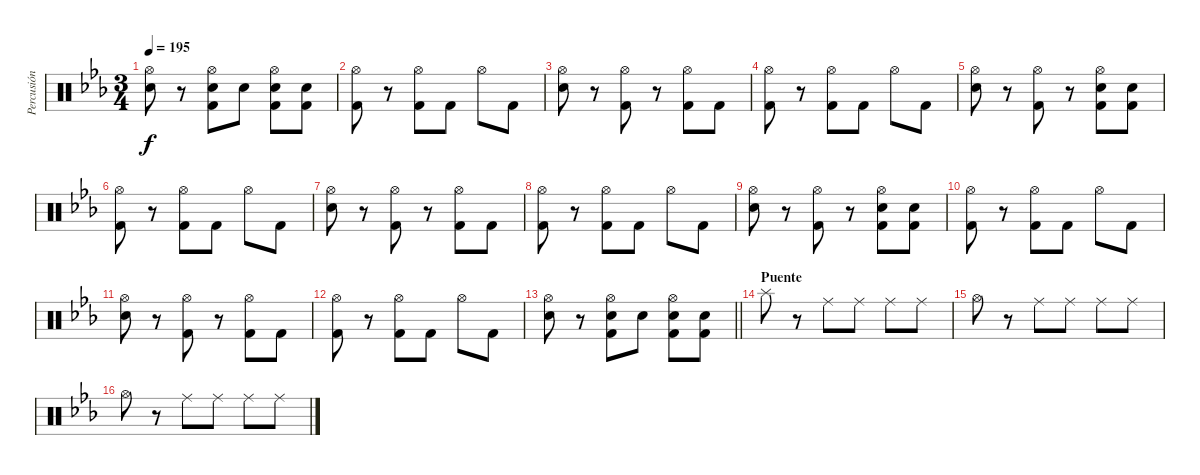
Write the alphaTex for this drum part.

\track ("Percusión" "Percusión") {instrument percussion}
\staff {score}
\articulation defaults
\ts (3 4)
\tempo 195
\clef neutral
\ks eb
("Hi-Hat (open)" "Snare (hit) 2").8{dy f} r.8 ("Hi-Hat (open)" "Snare (hit) 2" "Kick (hit) 2").8 "Snare (hit) 2".8 ("Hi-Hat (open)" "Snare (hit) 2" "Kick (hit) 2").8 ("Snare (hit) 2" "Kick (hit) 2").8 |
("Hi-Hat (open)" "Kick (hit) 2").8 r.8 ("Hi-Hat (open)" "Kick (hit) 2").8 "Kick (hit) 2".8 "Hi-Hat (open)".8 "Kick (hit) 2".8 |
("Hi-Hat (open)" "Snare (hit) 2").8 r.8 ("Hi-Hat (open)" "Kick (hit) 2").8 r.8 ("Hi-Hat (open)" "Kick (hit) 2").8 "Kick (hit) 2".8 |
("Hi-Hat (open)" "Kick (hit) 2").8 r.8 ("Hi-Hat (open)" "Kick (hit) 2").8 "Kick (hit) 2".8 "Hi-Hat (open)".8 "Kick (hit) 2".8 |
("Hi-Hat (open)" "Snare (hit) 2").8 r.8 ("Hi-Hat (open)" "Kick (hit) 2").8 r.8 ("Hi-Hat (open)" "Snare (hit) 2" "Kick (hit) 2").8 ("Snare (hit) 2" "Kick (hit) 2").8 |
("Hi-Hat (open)" "Kick (hit) 2").8 r.8 ("Hi-Hat (open)" "Kick (hit) 2").8 "Kick (hit) 2".8 "Hi-Hat (open)".8 "Kick (hit) 2".8 |
("Hi-Hat (open)" "Snare (hit) 2").8 r.8 ("Hi-Hat (open)" "Kick (hit) 2").8 r.8 ("Hi-Hat (open)" "Kick (hit) 2").8 "Kick (hit) 2".8 |
("Hi-Hat (open)" "Kick (hit) 2").8 r.8 ("Hi-Hat (open)" "Kick (hit) 2").8 "Kick (hit) 2".8 "Hi-Hat (open)".8 "Kick (hit) 2".8 |
("Hi-Hat (open)" "Snare (hit) 2").8 r.8 ("Hi-Hat (open)" "Kick (hit) 2").8 r.8 ("Hi-Hat (open)" "Snare (hit) 2" "Kick (hit) 2").8 ("Snare (hit) 2" "Kick (hit) 2").8 |
("Hi-Hat (open)" "Kick (hit) 2").8 r.8 ("Hi-Hat (open)" "Kick (hit) 2").8 "Kick (hit) 2".8 "Hi-Hat (open)".8 "Kick (hit) 2".8 |
("Hi-Hat (open)" "Snare (hit) 2").8 r.8 ("Hi-Hat (open)" "Kick (hit) 2").8 r.8 ("Hi-Hat (open)" "Kick (hit) 2").8 "Kick (hit) 2".8 |
("Hi-Hat (open)" "Kick (hit) 2").8 r.8 ("Hi-Hat (open)" "Kick (hit) 2").8 "Kick (hit) 2".8 "Hi-Hat (open)".8 "Kick (hit) 2".8 |
\barLineRight lightlight
("Hi-Hat (open)" "Snare (hit) 2").8 r.8 ("Hi-Hat (open)" "Snare (hit) 2" "Kick (hit) 2").8 "Snare (hit) 2".8 ("Hi-Hat (open)" "Snare (hit) 2" "Kick (hit) 2").8 ("Snare (hit) 2" "Kick (hit) 2").8 |
\section ("" "Puente")
"Splash (hit)".8 r.8 "Ride (middle)".8 "Ride (middle)".8 "Ride (middle)".8 "Ride (middle)".8 |
"Hi-Hat (open)".8 r.8 "Ride (middle)".8 "Ride (middle)".8 "Ride (middle)".8 "Ride (middle)".8 |
"Hi-Hat (open)".8 r.8 "Ride (middle)".8 "Ride (middle)".8 "Ride (middle)".8 "Ride (middle)".8
